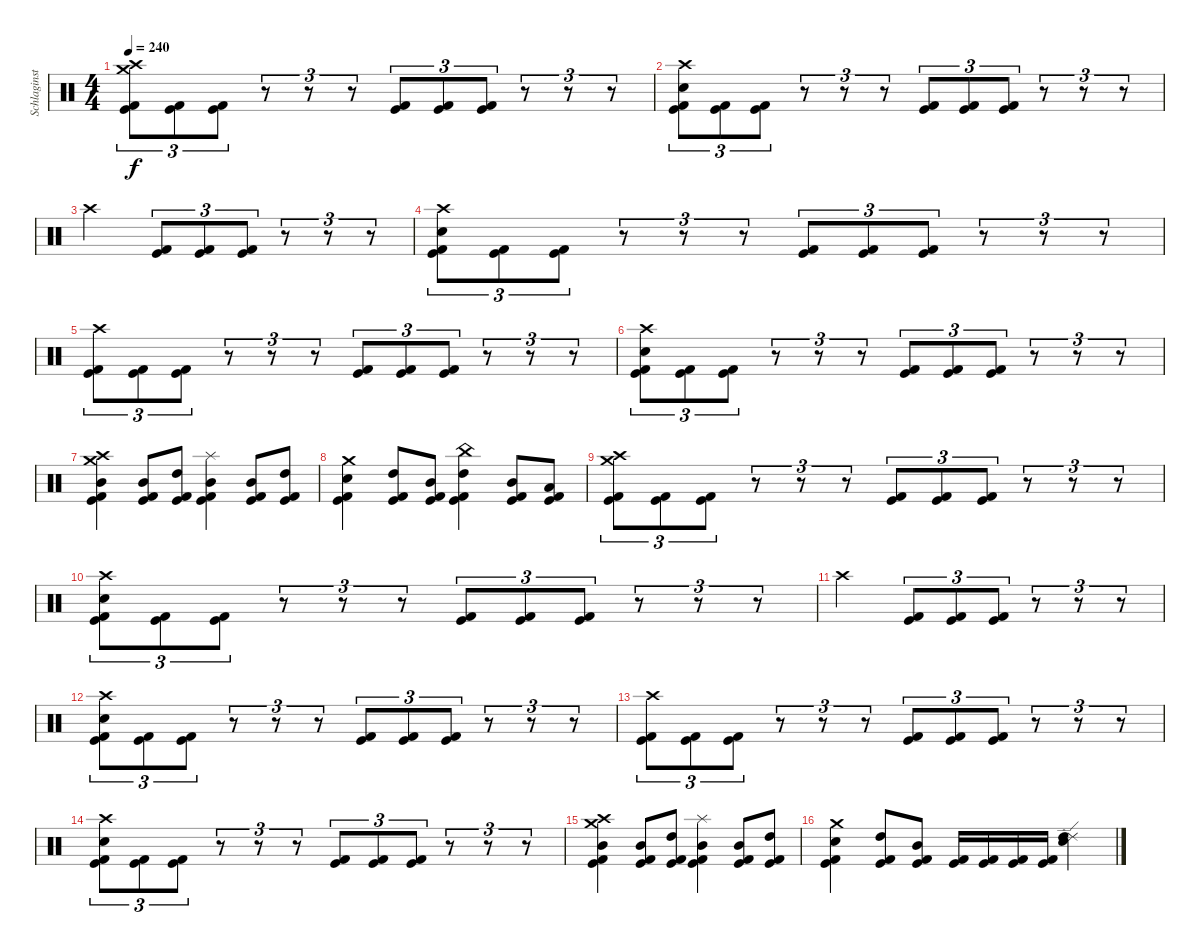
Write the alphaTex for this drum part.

\track ("Schlaginstrumente - Auswahl" "Schlaginst") {instrument percussion}
\staff {score}
\articulation defaults
\ts (4 4)
\tempo 240
\clef neutral
\ks c
("Crash medium (hit)" "Crash high (hit)" "Kick (hit)" "Kick (hit) 2").8{tu (3 2) dy f} ("Kick (hit)" "Kick (hit) 2").8{tu (3 2)} ("Kick (hit)" "Kick (hit) 2").8{tu (3 2)} r.8{tu (3 2)} r.8{tu (3 2)} r.8{tu (3 2)} ("Kick (hit)" "Kick (hit) 2").8{tu (3 2)} ("Kick (hit)" "Kick (hit) 2").8{tu (3 2)} ("Kick (hit)" "Kick (hit) 2").8{tu (3 2)} r.8{tu (3 2)} r.8{tu (3 2)} r.8{tu (3 2)} |
("Crash high (hit)" "Electric Snare (hit)" "Kick (hit)" "Kick (hit) 2").8{tu (3 2)} ("Kick (hit)" "Kick (hit) 2").8{tu (3 2)} ("Kick (hit)" "Kick (hit) 2").8{tu (3 2)} r.8{tu (3 2)} r.8{tu (3 2)} r.8{tu (3 2)} ("Kick (hit)" "Kick (hit) 2").8{tu (3 2)} ("Kick (hit)" "Kick (hit) 2").8{tu (3 2)} ("Kick (hit)" "Kick (hit) 2").8{tu (3 2)} r.8{tu (3 2)} r.8{tu (3 2)} r.8{tu (3 2)} |
"Crash high (hit)".2 ("Kick (hit)" "Kick (hit) 2").8{tu (3 2)} ("Kick (hit)" "Kick (hit) 2").8{tu (3 2)} ("Kick (hit)" "Kick (hit) 2").8{tu (3 2)} r.8{tu (3 2)} r.8{tu (3 2)} r.8{tu (3 2)} |
("Crash high (hit)" "Electric Snare (hit)" "Kick (hit)" "Kick (hit) 2").8{tu (3 2)} ("Kick (hit)" "Kick (hit) 2").8{tu (3 2)} ("Kick (hit)" "Kick (hit) 2").8{tu (3 2)} r.8{tu (3 2)} r.8{tu (3 2)} r.8{tu (3 2)} ("Kick (hit)" "Kick (hit) 2").8{tu (3 2)} ("Kick (hit)" "Kick (hit) 2").8{tu (3 2)} ("Kick (hit)" "Kick (hit) 2").8{tu (3 2)} r.8{tu (3 2)} r.8{tu (3 2)} r.8{tu (3 2)} |
("Crash high (hit)" "Kick (hit)" "Kick (hit) 2").8{tu (3 2)} ("Kick (hit)" "Kick (hit) 2").8{tu (3 2)} ("Kick (hit)" "Kick (hit) 2").8{tu (3 2)} r.8{tu (3 2)} r.8{tu (3 2)} r.8{tu (3 2)} ("Kick (hit)" "Kick (hit) 2").8{tu (3 2)} ("Kick (hit)" "Kick (hit) 2").8{tu (3 2)} ("Kick (hit)" "Kick (hit) 2").8{tu (3 2)} r.8{tu (3 2)} r.8{tu (3 2)} r.8{tu (3 2)} |
("Crash high (hit)" "Electric Snare (hit)" "Kick (hit)" "Kick (hit) 2").8{tu (3 2)} ("Kick (hit)" "Kick (hit) 2").8{tu (3 2)} ("Kick (hit)" "Kick (hit) 2").8{tu (3 2)} r.8{tu (3 2)} r.8{tu (3 2)} r.8{tu (3 2)} ("Kick (hit)" "Kick (hit) 2").8{tu (3 2)} ("Kick (hit)" "Kick (hit) 2").8{tu (3 2)} ("Kick (hit)" "Kick (hit) 2").8{tu (3 2)} r.8{tu (3 2)} r.8{tu (3 2)} r.8{tu (3 2)} |
("Crash medium (hit)" "Crash high (hit)" "Mid Tom (hit)" "Kick (hit)" "Kick (hit) 2").4 ("Mid Tom (hit)" "Kick (hit)" "Kick (hit) 2").8 ("High Tom (hit)" "Kick (hit)" "Kick (hit) 2").8 ("Splash (hit)" "Mid Tom (hit)" "Kick (hit)" "Kick (hit) 2").4 ("Mid Tom (hit)" "Kick (hit)" "Kick (hit) 2").8 ("High Tom (hit)" "Kick (hit)" "Kick (hit) 2").8 |
("Crash medium (hit)" "Electric Snare (hit)" "Kick (hit)" "Kick (hit) 2").4 ("High Tom (hit)" "Kick (hit)" "Kick (hit) 2").8 ("Mid Tom (hit)" "Kick (hit)" "Kick (hit) 2").8 ("China (hit)" "High Tom (hit)" "Kick (hit)" "Kick (hit) 2").4 ("Mid Tom (hit)" "Kick (hit)" "Kick (hit) 2").8 ("Low Tom (hit)" "Kick (hit)" "Kick (hit) 2").8 |
("Crash medium (hit)" "Crash high (hit)" "Kick (hit)" "Kick (hit) 2").8{tu (3 2)} ("Kick (hit)" "Kick (hit) 2").8{tu (3 2)} ("Kick (hit)" "Kick (hit) 2").8{tu (3 2)} r.8{tu (3 2)} r.8{tu (3 2)} r.8{tu (3 2)} ("Kick (hit)" "Kick (hit) 2").8{tu (3 2)} ("Kick (hit)" "Kick (hit) 2").8{tu (3 2)} ("Kick (hit)" "Kick (hit) 2").8{tu (3 2)} r.8{tu (3 2)} r.8{tu (3 2)} r.8{tu (3 2)} |
("Crash high (hit)" "Electric Snare (hit)" "Kick (hit)" "Kick (hit) 2").8{tu (3 2)} ("Kick (hit)" "Kick (hit) 2").8{tu (3 2)} ("Kick (hit)" "Kick (hit) 2").8{tu (3 2)} r.8{tu (3 2)} r.8{tu (3 2)} r.8{tu (3 2)} ("Kick (hit)" "Kick (hit) 2").8{tu (3 2)} ("Kick (hit)" "Kick (hit) 2").8{tu (3 2)} ("Kick (hit)" "Kick (hit) 2").8{tu (3 2)} r.8{tu (3 2)} r.8{tu (3 2)} r.8{tu (3 2)} |
"Crash high (hit)".2 ("Kick (hit)" "Kick (hit) 2").8{tu (3 2)} ("Kick (hit)" "Kick (hit) 2").8{tu (3 2)} ("Kick (hit)" "Kick (hit) 2").8{tu (3 2)} r.8{tu (3 2)} r.8{tu (3 2)} r.8{tu (3 2)} |
("Crash high (hit)" "Electric Snare (hit)" "Kick (hit)" "Kick (hit) 2").8{tu (3 2)} ("Kick (hit)" "Kick (hit) 2").8{tu (3 2)} ("Kick (hit)" "Kick (hit) 2").8{tu (3 2)} r.8{tu (3 2)} r.8{tu (3 2)} r.8{tu (3 2)} ("Kick (hit)" "Kick (hit) 2").8{tu (3 2)} ("Kick (hit)" "Kick (hit) 2").8{tu (3 2)} ("Kick (hit)" "Kick (hit) 2").8{tu (3 2)} r.8{tu (3 2)} r.8{tu (3 2)} r.8{tu (3 2)} |
("Crash high (hit)" "Kick (hit)" "Kick (hit) 2").8{tu (3 2)} ("Kick (hit)" "Kick (hit) 2").8{tu (3 2)} ("Kick (hit)" "Kick (hit) 2").8{tu (3 2)} r.8{tu (3 2)} r.8{tu (3 2)} r.8{tu (3 2)} ("Kick (hit)" "Kick (hit) 2").8{tu (3 2)} ("Kick (hit)" "Kick (hit) 2").8{tu (3 2)} ("Kick (hit)" "Kick (hit) 2").8{tu (3 2)} r.8{tu (3 2)} r.8{tu (3 2)} r.8{tu (3 2)} |
("Crash high (hit)" "Electric Snare (hit)" "Kick (hit)" "Kick (hit) 2").8{tu (3 2)} ("Kick (hit)" "Kick (hit) 2").8{tu (3 2)} ("Kick (hit)" "Kick (hit) 2").8{tu (3 2)} r.8{tu (3 2)} r.8{tu (3 2)} r.8{tu (3 2)} ("Kick (hit)" "Kick (hit) 2").8{tu (3 2)} ("Kick (hit)" "Kick (hit) 2").8{tu (3 2)} ("Kick (hit)" "Kick (hit) 2").8{tu (3 2)} r.8{tu (3 2)} r.8{tu (3 2)} r.8{tu (3 2)} |
("Crash medium (hit)" "Crash high (hit)" "Mid Tom (hit)" "Kick (hit)" "Kick (hit) 2").4 ("Mid Tom (hit)" "Kick (hit)" "Kick (hit) 2").8 ("High Tom (hit)" "Kick (hit)" "Kick (hit) 2").8 ("Splash (hit)" "Mid Tom (hit)" "Kick (hit)" "Kick (hit) 2").4 ("Mid Tom (hit)" "Kick (hit)" "Kick (hit) 2").8 ("High Tom (hit)" "Kick (hit)" "Kick (hit) 2").8 |
("Crash medium (hit)" "Electric Snare (hit)" "Kick (hit)" "Kick (hit) 2").4 ("High Tom (hit)" "Kick (hit)" "Kick (hit) 2").8 ("Mid Tom (hit)" "Kick (hit)" "Kick (hit) 2").8 ("Kick (hit)" "Kick (hit) 2").16 ("Kick (hit)" "Kick (hit) 2").16 ("Kick (hit)" "Kick (hit) 2").16 ("Kick (hit)" "Kick (hit) 2").16 ("Ride (edge) 2" "High Tom (hit)" "Electric Snare (hit)").4
